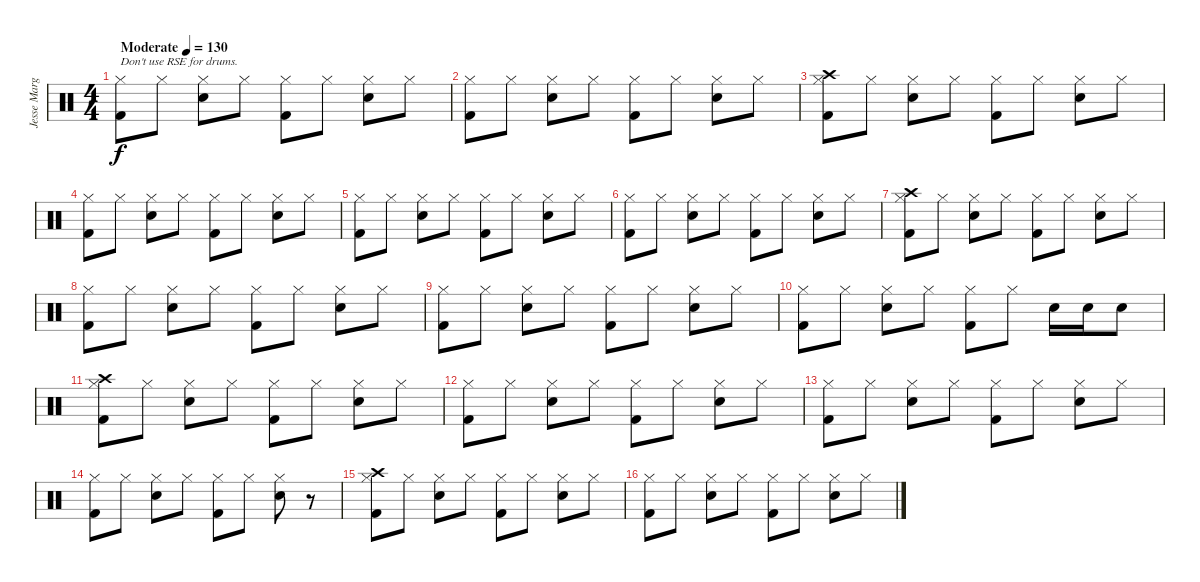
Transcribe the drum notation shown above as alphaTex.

\track ("Jesse Margera" "Jesse Marg") {instrument percussion}
\staff {score}
\articulation defaults
\ts (4 4)
\tempo (130 "Moderate")
\clef neutral
\ks c
("Hi-Hat (closed)" "Kick (hit) 2").8{txt "Don't use RSE for drums." dy f} "Hi-Hat (closed)".8 ("Hi-Hat (closed)" "Electric Snare (hit)").8 "Hi-Hat (closed)".8 ("Hi-Hat (closed)" "Kick (hit) 2").8 "Hi-Hat (closed)".8 ("Hi-Hat (closed)" "Electric Snare (hit)").8 "Hi-Hat (closed)".8 |
("Hi-Hat (closed)" "Kick (hit) 2").8 "Hi-Hat (closed)".8 ("Hi-Hat (closed)" "Electric Snare (hit)").8 "Hi-Hat (closed)".8 ("Hi-Hat (closed)" "Kick (hit) 2").8 "Hi-Hat (closed)".8 ("Hi-Hat (closed)" "Electric Snare (hit)").8 "Hi-Hat (closed)".8 |
("Hi-Hat (closed)" "Crash high (hit)" "Kick (hit) 2").8 "Hi-Hat (closed)".8 ("Hi-Hat (closed)" "Electric Snare (hit)").8 "Hi-Hat (closed)".8 ("Hi-Hat (closed)" "Kick (hit) 2").8 "Hi-Hat (closed)".8 ("Hi-Hat (closed)" "Electric Snare (hit)").8 "Hi-Hat (closed)".8 |
("Hi-Hat (closed)" "Kick (hit) 2").8 "Hi-Hat (closed)".8 ("Hi-Hat (closed)" "Electric Snare (hit)").8 "Hi-Hat (closed)".8 ("Hi-Hat (closed)" "Kick (hit) 2").8 "Hi-Hat (closed)".8 ("Hi-Hat (closed)" "Electric Snare (hit)").8 "Hi-Hat (closed)".8 |
("Hi-Hat (closed)" "Kick (hit) 2").8 "Hi-Hat (closed)".8 ("Hi-Hat (closed)" "Electric Snare (hit)").8 "Hi-Hat (closed)".8 ("Hi-Hat (closed)" "Kick (hit) 2").8 "Hi-Hat (closed)".8 ("Hi-Hat (closed)" "Electric Snare (hit)").8 "Hi-Hat (closed)".8 |
("Hi-Hat (closed)" "Kick (hit) 2").8 "Hi-Hat (closed)".8 ("Hi-Hat (closed)" "Electric Snare (hit)").8 "Hi-Hat (closed)".8 ("Hi-Hat (closed)" "Kick (hit) 2").8 "Hi-Hat (closed)".8 ("Hi-Hat (closed)" "Electric Snare (hit)").8 "Hi-Hat (closed)".8 |
("Hi-Hat (closed)" "Crash high (hit)" "Kick (hit) 2").8 "Hi-Hat (closed)".8 ("Hi-Hat (closed)" "Electric Snare (hit)").8 "Hi-Hat (closed)".8 ("Hi-Hat (closed)" "Kick (hit) 2").8 "Hi-Hat (closed)".8 ("Hi-Hat (closed)" "Electric Snare (hit)").8 "Hi-Hat (closed)".8 |
("Hi-Hat (closed)" "Kick (hit) 2").8 "Hi-Hat (closed)".8 ("Hi-Hat (closed)" "Electric Snare (hit)").8 "Hi-Hat (closed)".8 ("Hi-Hat (closed)" "Kick (hit) 2").8 "Hi-Hat (closed)".8 ("Hi-Hat (closed)" "Electric Snare (hit)").8 "Hi-Hat (closed)".8 |
("Hi-Hat (closed)" "Kick (hit) 2").8 "Hi-Hat (closed)".8 ("Hi-Hat (closed)" "Electric Snare (hit)").8 "Hi-Hat (closed)".8 ("Hi-Hat (closed)" "Kick (hit) 2").8 "Hi-Hat (closed)".8 ("Hi-Hat (closed)" "Electric Snare (hit)").8 "Hi-Hat (closed)".8 |
("Hi-Hat (closed)" "Kick (hit) 2").8 "Hi-Hat (closed)".8 ("Hi-Hat (closed)" "Electric Snare (hit)").8 "Hi-Hat (closed)".8 ("Hi-Hat (closed)" "Kick (hit) 2").8 "Hi-Hat (closed)".8 "Electric Snare (hit)".16 "Electric Snare (hit)".16 "Electric Snare (hit)".8 |
("Hi-Hat (closed)" "Crash high (hit)" "Kick (hit) 2").8 "Hi-Hat (closed)".8 ("Hi-Hat (closed)" "Electric Snare (hit)").8 "Hi-Hat (closed)".8 ("Hi-Hat (closed)" "Kick (hit) 2").8 "Hi-Hat (closed)".8 ("Hi-Hat (closed)" "Electric Snare (hit)").8 "Hi-Hat (closed)".8 |
("Hi-Hat (closed)" "Kick (hit) 2").8 "Hi-Hat (closed)".8 ("Hi-Hat (closed)" "Electric Snare (hit)").8 "Hi-Hat (closed)".8 ("Hi-Hat (closed)" "Kick (hit) 2").8 "Hi-Hat (closed)".8 ("Hi-Hat (closed)" "Electric Snare (hit)").8 "Hi-Hat (closed)".8 |
("Hi-Hat (closed)" "Kick (hit) 2").8 "Hi-Hat (closed)".8 ("Hi-Hat (closed)" "Electric Snare (hit)").8 "Hi-Hat (closed)".8 ("Hi-Hat (closed)" "Kick (hit) 2").8 "Hi-Hat (closed)".8 ("Hi-Hat (closed)" "Electric Snare (hit)").8 "Hi-Hat (closed)".8 |
("Hi-Hat (closed)" "Kick (hit) 2").8 "Hi-Hat (closed)".8 ("Hi-Hat (closed)" "Electric Snare (hit)").8 "Hi-Hat (closed)".8 ("Hi-Hat (closed)" "Kick (hit) 2").8 "Hi-Hat (closed)".8 ("Hi-Hat (closed)" "Electric Snare (hit)").8 r.8 |
("Hi-Hat (closed)" "Crash high (hit)" "Kick (hit) 2").8 "Hi-Hat (closed)".8 ("Hi-Hat (closed)" "Electric Snare (hit)").8 "Hi-Hat (closed)".8 ("Hi-Hat (closed)" "Kick (hit) 2").8 "Hi-Hat (closed)".8 ("Hi-Hat (closed)" "Electric Snare (hit)").8 "Hi-Hat (closed)".8 |
("Hi-Hat (closed)" "Kick (hit) 2").8 "Hi-Hat (closed)".8 ("Hi-Hat (closed)" "Electric Snare (hit)").8 "Hi-Hat (closed)".8 ("Hi-Hat (closed)" "Kick (hit) 2").8 "Hi-Hat (closed)".8 ("Hi-Hat (closed)" "Electric Snare (hit)").8 "Hi-Hat (closed)".8
